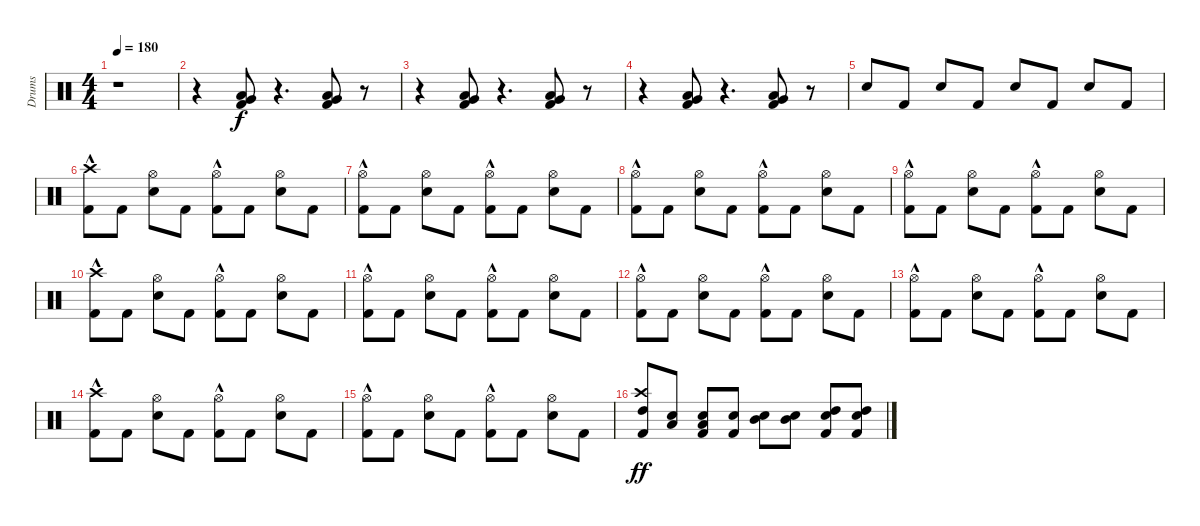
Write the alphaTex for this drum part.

\track ("Drums" "Drums") {instrument percussion}
\staff {score}
\articulation defaults
\ts (4 4)
\tempo 180
\clef neutral
\ks c
r.1{dy f} |
r.4 ("Kick (hit) 2" "Very Low Tom (hit)" "Low Floor Tom (hit)").8 r.4{d} ("Kick (hit) 2" "Low Floor Tom (hit)" "Very Low Tom (hit)").8 r.8 |
r.4 ("Kick (hit) 2" "Very Low Tom (hit)" "Low Floor Tom (hit)").8 r.4{d} ("Kick (hit) 2" "Low Floor Tom (hit)" "Very Low Tom (hit)").8 r.8 |
r.4 ("Kick (hit) 2" "Very Low Tom (hit)" "Low Floor Tom (hit)").8 r.4{d} ("Kick (hit) 2" "Low Floor Tom (hit)" "Very Low Tom (hit)").8 r.8 |
"Snare (hit) 2".8 "Kick (hit) 2".8 "Snare (hit) 2".8 "Kick (hit) 2".8 "Snare (hit) 2".8 "Kick (hit) 2".8 "Snare (hit) 2".8 "Kick (hit) 2".8 |
("Crash high (hit)" "Kick (hit) 2"{hac}).8 "Kick (hit) 2".8 ("Hi-Hat (open)" "Snare (hit) 2").8 "Kick (hit) 2".8 ("Hi-Hat (open)" "Kick (hit) 2"{hac}).8 "Kick (hit) 2".8 ("Hi-Hat (open)" "Snare (hit) 2").8 "Kick (hit) 2".8 |
("Hi-Hat (open)" "Kick (hit) 2"{hac}).8 "Kick (hit) 2".8 ("Hi-Hat (open)" "Snare (hit) 2").8 "Kick (hit) 2".8 ("Hi-Hat (open)" "Kick (hit) 2"{hac}).8 "Kick (hit) 2".8 ("Hi-Hat (open)" "Snare (hit) 2").8 "Kick (hit) 2".8 |
("Hi-Hat (open)" "Kick (hit) 2"{hac}).8 "Kick (hit) 2".8 ("Hi-Hat (open)" "Snare (hit) 2").8 "Kick (hit) 2".8 ("Hi-Hat (open)" "Kick (hit) 2"{hac}).8 "Kick (hit) 2".8 ("Hi-Hat (open)" "Snare (hit) 2").8 "Kick (hit) 2".8 |
("Hi-Hat (open)" "Kick (hit) 2"{hac}).8 "Kick (hit) 2".8 ("Hi-Hat (open)" "Snare (hit) 2").8 "Kick (hit) 2".8 ("Hi-Hat (open)" "Kick (hit) 2"{hac}).8 "Kick (hit) 2".8 ("Hi-Hat (open)" "Snare (hit) 2").8 "Kick (hit) 2".8 |
("Crash high (hit)" "Kick (hit) 2"{hac}).8 "Kick (hit) 2".8 ("Hi-Hat (open)" "Snare (hit) 2").8 "Kick (hit) 2".8 ("Hi-Hat (open)" "Kick (hit) 2"{hac}).8 "Kick (hit) 2".8 ("Hi-Hat (open)" "Snare (hit) 2").8 "Kick (hit) 2".8 |
("Hi-Hat (open)" "Kick (hit) 2"{hac}).8 "Kick (hit) 2".8 ("Hi-Hat (open)" "Snare (hit) 2").8 "Kick (hit) 2".8 ("Hi-Hat (open)" "Kick (hit) 2"{hac}).8 "Kick (hit) 2".8 ("Hi-Hat (open)" "Snare (hit) 2").8 "Kick (hit) 2".8 |
("Hi-Hat (open)" "Kick (hit) 2"{hac}).8 "Kick (hit) 2".8 ("Hi-Hat (open)" "Snare (hit) 2").8 "Kick (hit) 2".8 ("Hi-Hat (open)" "Kick (hit) 2"{hac}).8 "Kick (hit) 2".8 ("Hi-Hat (open)" "Snare (hit) 2").8 "Kick (hit) 2".8 |
("Hi-Hat (open)" "Kick (hit) 2"{hac}).8 "Kick (hit) 2".8 ("Hi-Hat (open)" "Snare (hit) 2").8 "Kick (hit) 2".8 ("Hi-Hat (open)" "Kick (hit) 2"{hac}).8 "Kick (hit) 2".8 ("Hi-Hat (open)" "Snare (hit) 2").8 "Kick (hit) 2".8 |
("Crash high (hit)" "Kick (hit) 2"{hac}).8 "Kick (hit) 2".8 ("Hi-Hat (open)" "Snare (hit) 2").8 "Kick (hit) 2".8 ("Hi-Hat (open)" "Kick (hit) 2"{hac}).8 "Kick (hit) 2".8 ("Hi-Hat (open)" "Snare (hit) 2").8 "Kick (hit) 2".8 |
("Hi-Hat (open)" "Kick (hit) 2"{hac}).8 "Kick (hit) 2".8 ("Hi-Hat (open)" "Snare (hit) 2").8 "Kick (hit) 2".8 ("Hi-Hat (open)" "Kick (hit) 2"{hac}).8 "Kick (hit) 2".8 ("Hi-Hat (open)" "Snare (hit) 2").8 "Kick (hit) 2".8 |
("Crash high (hit)" "High Tom (hit)" "Kick (hit) 2").8{dy ff} ("Snare (hit) 2" "Low Tom (hit)").8 ("Snare (hit) 2" "Low Tom (hit)" "Kick (hit) 2").8 ("Snare (hit) 2" "Kick (hit) 2").8 ("Snare (hit) 2" "Mid Tom (hit)").8 ("Snare (hit) 2" "Mid Tom (hit)").8 ("Snare (hit) 2" "High Tom (hit)" "Kick (hit) 2").8 ("Snare (hit) 2" "High Tom (hit)" "Kick (hit) 2").8
